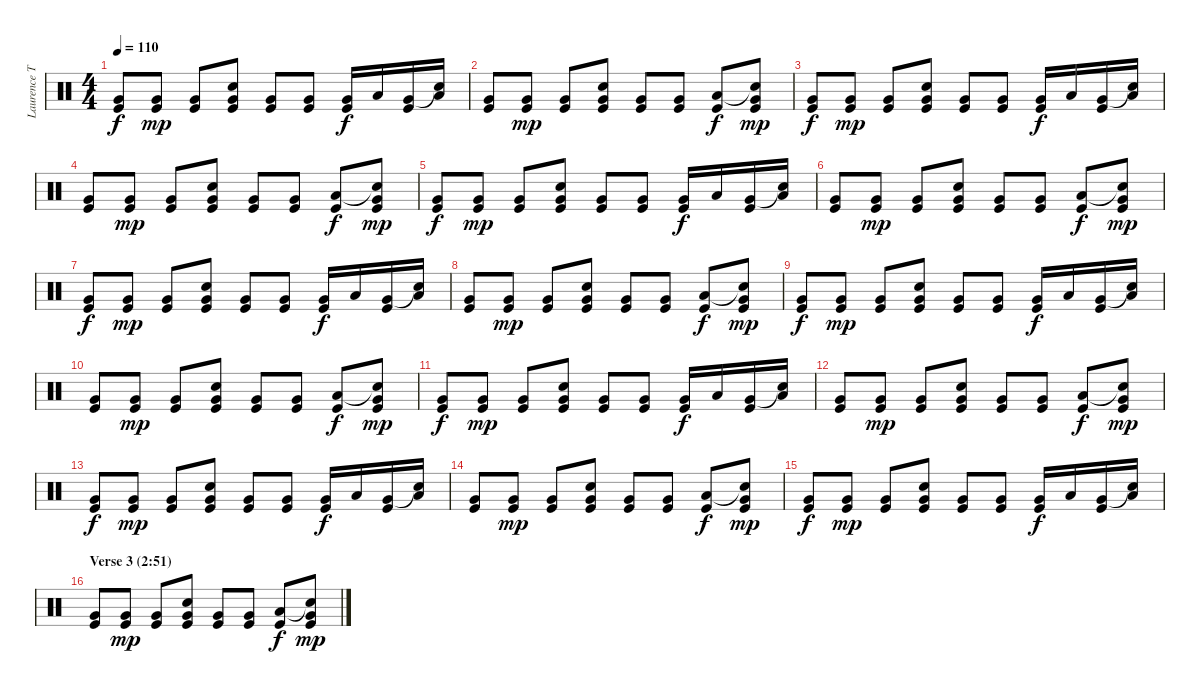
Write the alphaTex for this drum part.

\track ("Laurence Tolhurst (drums)" "Laurence T") {instrument percussion}
\staff {score}
\articulation defaults
\ts (4 4)
\tempo 110
\clef neutral
\ks c
("Very Low Tom (hit)" "Kick (hit)").8{dy f} ("Very Low Tom (hit)" "Kick (hit)").8{dy mp} ("Very Low Tom (hit)" "Kick (hit)").8 ("Snare (hit) 2" "Very Low Tom (hit)" "Kick (hit)").8 ("Very Low Tom (hit)" "Kick (hit)").8 ("Very Low Tom (hit)" "Kick (hit)").8 ("Very Low Tom (hit)" "Kick (hit)").16{dy f} "Low Tom (hit)".16 ("Very Low Tom (hit)" "Kick (hit)").16 ("Snare (hit)"{t} "Low Tom (hit)").16 |
("Very Low Tom (hit)" "Kick (hit)").8 ("Very Low Tom (hit)" "Kick (hit)").8{dy mp} ("Very Low Tom (hit)" "Kick (hit)").8 ("Snare (hit) 2" "Very Low Tom (hit)" "Kick (hit)").8 ("Very Low Tom (hit)" "Kick (hit)").8 ("Very Low Tom (hit)" "Kick (hit)").8 ("Low Tom (hit)" "Kick (hit)").8{dy f} ("Snare (hit)"{t} "Very Low Tom (hit)" "Kick (hit)").8{dy mp} |
("Very Low Tom (hit)" "Kick (hit)").8{dy f} ("Very Low Tom (hit)" "Kick (hit)").8{dy mp} ("Very Low Tom (hit)" "Kick (hit)").8 ("Snare (hit) 2" "Very Low Tom (hit)" "Kick (hit)").8 ("Very Low Tom (hit)" "Kick (hit)").8 ("Very Low Tom (hit)" "Kick (hit)").8 ("Very Low Tom (hit)" "Kick (hit)").16{dy f} "Low Tom (hit)".16 ("Very Low Tom (hit)" "Kick (hit)").16 ("Snare (hit)"{t} "Low Tom (hit)").16 |
("Very Low Tom (hit)" "Kick (hit)").8 ("Very Low Tom (hit)" "Kick (hit)").8{dy mp} ("Very Low Tom (hit)" "Kick (hit)").8 ("Snare (hit) 2" "Very Low Tom (hit)" "Kick (hit)").8 ("Very Low Tom (hit)" "Kick (hit)").8 ("Very Low Tom (hit)" "Kick (hit)").8 ("Low Tom (hit)" "Kick (hit)").8{dy f} ("Snare (hit)"{t} "Very Low Tom (hit)" "Kick (hit)").8{dy mp} |
("Very Low Tom (hit)" "Kick (hit)").8{dy f} ("Very Low Tom (hit)" "Kick (hit)").8{dy mp} ("Very Low Tom (hit)" "Kick (hit)").8 ("Snare (hit) 2" "Very Low Tom (hit)" "Kick (hit)").8 ("Very Low Tom (hit)" "Kick (hit)").8 ("Very Low Tom (hit)" "Kick (hit)").8 ("Very Low Tom (hit)" "Kick (hit)").16{dy f} "Low Tom (hit)".16 ("Very Low Tom (hit)" "Kick (hit)").16 ("Snare (hit)"{t} "Low Tom (hit)").16 |
("Very Low Tom (hit)" "Kick (hit)").8 ("Very Low Tom (hit)" "Kick (hit)").8{dy mp} ("Very Low Tom (hit)" "Kick (hit)").8 ("Snare (hit) 2" "Very Low Tom (hit)" "Kick (hit)").8 ("Very Low Tom (hit)" "Kick (hit)").8 ("Very Low Tom (hit)" "Kick (hit)").8 ("Low Tom (hit)" "Kick (hit)").8{dy f} ("Snare (hit)"{t} "Very Low Tom (hit)" "Kick (hit)").8{dy mp} |
("Very Low Tom (hit)" "Kick (hit)").8{dy f} ("Very Low Tom (hit)" "Kick (hit)").8{dy mp} ("Very Low Tom (hit)" "Kick (hit)").8 ("Snare (hit) 2" "Very Low Tom (hit)" "Kick (hit)").8 ("Very Low Tom (hit)" "Kick (hit)").8 ("Very Low Tom (hit)" "Kick (hit)").8 ("Very Low Tom (hit)" "Kick (hit)").16{dy f} "Low Tom (hit)".16 ("Very Low Tom (hit)" "Kick (hit)").16 ("Snare (hit)"{t} "Low Tom (hit)").16 |
("Very Low Tom (hit)" "Kick (hit)").8 ("Very Low Tom (hit)" "Kick (hit)").8{dy mp} ("Very Low Tom (hit)" "Kick (hit)").8 ("Snare (hit) 2" "Very Low Tom (hit)" "Kick (hit)").8 ("Very Low Tom (hit)" "Kick (hit)").8 ("Very Low Tom (hit)" "Kick (hit)").8 ("Low Tom (hit)" "Kick (hit)").8{dy f} ("Snare (hit)"{t} "Very Low Tom (hit)" "Kick (hit)").8{dy mp} |
("Very Low Tom (hit)" "Kick (hit)").8{dy f} ("Very Low Tom (hit)" "Kick (hit)").8{dy mp} ("Very Low Tom (hit)" "Kick (hit)").8 ("Snare (hit) 2" "Very Low Tom (hit)" "Kick (hit)").8 ("Very Low Tom (hit)" "Kick (hit)").8 ("Very Low Tom (hit)" "Kick (hit)").8 ("Very Low Tom (hit)" "Kick (hit)").16{dy f} "Low Tom (hit)".16 ("Very Low Tom (hit)" "Kick (hit)").16 ("Snare (hit)"{t} "Low Tom (hit)").16 |
("Very Low Tom (hit)" "Kick (hit)").8 ("Very Low Tom (hit)" "Kick (hit)").8{dy mp} ("Very Low Tom (hit)" "Kick (hit)").8 ("Snare (hit) 2" "Very Low Tom (hit)" "Kick (hit)").8 ("Very Low Tom (hit)" "Kick (hit)").8 ("Very Low Tom (hit)" "Kick (hit)").8 ("Low Tom (hit)" "Kick (hit)").8{dy f} ("Snare (hit)"{t} "Very Low Tom (hit)" "Kick (hit)").8{dy mp} |
("Very Low Tom (hit)" "Kick (hit)").8{dy f} ("Very Low Tom (hit)" "Kick (hit)").8{dy mp} ("Very Low Tom (hit)" "Kick (hit)").8 ("Snare (hit) 2" "Very Low Tom (hit)" "Kick (hit)").8 ("Very Low Tom (hit)" "Kick (hit)").8 ("Very Low Tom (hit)" "Kick (hit)").8 ("Very Low Tom (hit)" "Kick (hit)").16{dy f} "Low Tom (hit)".16 ("Very Low Tom (hit)" "Kick (hit)").16 ("Snare (hit)"{t} "Low Tom (hit)").16 |
("Very Low Tom (hit)" "Kick (hit)").8 ("Very Low Tom (hit)" "Kick (hit)").8{dy mp} ("Very Low Tom (hit)" "Kick (hit)").8 ("Snare (hit) 2" "Very Low Tom (hit)" "Kick (hit)").8 ("Very Low Tom (hit)" "Kick (hit)").8 ("Very Low Tom (hit)" "Kick (hit)").8 ("Low Tom (hit)" "Kick (hit)").8{dy f} ("Snare (hit)"{t} "Very Low Tom (hit)" "Kick (hit)").8{dy mp} |
("Very Low Tom (hit)" "Kick (hit)").8{dy f} ("Very Low Tom (hit)" "Kick (hit)").8{dy mp} ("Very Low Tom (hit)" "Kick (hit)").8 ("Snare (hit) 2" "Very Low Tom (hit)" "Kick (hit)").8 ("Very Low Tom (hit)" "Kick (hit)").8 ("Very Low Tom (hit)" "Kick (hit)").8 ("Very Low Tom (hit)" "Kick (hit)").16{dy f} "Low Tom (hit)".16 ("Very Low Tom (hit)" "Kick (hit)").16 ("Snare (hit)"{t} "Low Tom (hit)").16 |
("Very Low Tom (hit)" "Kick (hit)").8 ("Very Low Tom (hit)" "Kick (hit)").8{dy mp} ("Very Low Tom (hit)" "Kick (hit)").8 ("Snare (hit) 2" "Very Low Tom (hit)" "Kick (hit)").8 ("Very Low Tom (hit)" "Kick (hit)").8 ("Very Low Tom (hit)" "Kick (hit)").8 ("Low Tom (hit)" "Kick (hit)").8{dy f} ("Snare (hit)"{t} "Very Low Tom (hit)" "Kick (hit)").8{dy mp} |
("Very Low Tom (hit)" "Kick (hit)").8{dy f} ("Very Low Tom (hit)" "Kick (hit)").8{dy mp} ("Very Low Tom (hit)" "Kick (hit)").8 ("Snare (hit) 2" "Very Low Tom (hit)" "Kick (hit)").8 ("Very Low Tom (hit)" "Kick (hit)").8 ("Very Low Tom (hit)" "Kick (hit)").8 ("Very Low Tom (hit)" "Kick (hit)").16{dy f} "Low Tom (hit)".16 ("Very Low Tom (hit)" "Kick (hit)").16 ("Snare (hit)"{t} "Low Tom (hit)").16 |
\section ("" "Verse 3 (2:51)")
("Very Low Tom (hit)" "Kick (hit)").8 ("Very Low Tom (hit)" "Kick (hit)").8{dy mp} ("Very Low Tom (hit)" "Kick (hit)").8 ("Snare (hit) 2" "Very Low Tom (hit)" "Kick (hit)").8 ("Very Low Tom (hit)" "Kick (hit)").8 ("Very Low Tom (hit)" "Kick (hit)").8 ("Low Tom (hit)" "Kick (hit)").8{dy f} ("Snare (hit)"{t} "Very Low Tom (hit)" "Kick (hit)").8{dy mp}
